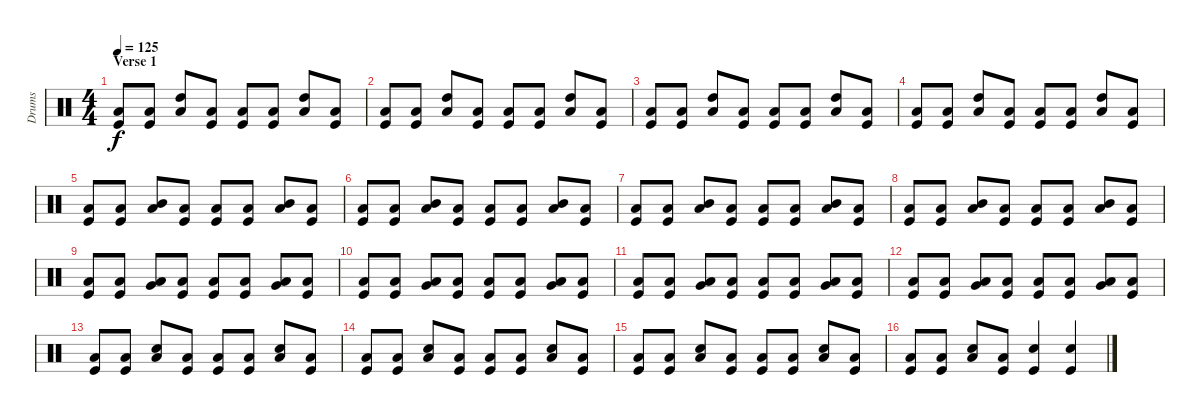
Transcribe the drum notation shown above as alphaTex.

\track ("Drums" "Drums") {instrument percussion}
\staff {score}
\articulation defaults
\ts (4 4)
\section ("" "Verse 1")
\tempo 125
\clef neutral
\ks c
("Low Floor Tom (hit)" "Kick (hit)").8{dy f} ("Low Floor Tom (hit)" "Kick (hit)").8 ("Low Floor Tom (hit)" "High Tom (hit)").8 ("Low Floor Tom (hit)" "Kick (hit)").8 ("Low Floor Tom (hit)" "Kick (hit)").8 ("Low Floor Tom (hit)" "Kick (hit)").8 ("Low Floor Tom (hit)" "High Tom (hit)").8 ("Low Floor Tom (hit)" "Kick (hit)").8 |
("Low Floor Tom (hit)" "Kick (hit)").8 ("Low Floor Tom (hit)" "Kick (hit)").8 ("Low Floor Tom (hit)" "High Tom (hit)").8 ("Low Floor Tom (hit)" "Kick (hit)").8 ("Low Floor Tom (hit)" "Kick (hit)").8 ("Low Floor Tom (hit)" "Kick (hit)").8 ("Low Floor Tom (hit)" "High Tom (hit)").8 ("Low Floor Tom (hit)" "Kick (hit)").8 |
("Low Floor Tom (hit)" "Kick (hit)").8 ("Low Floor Tom (hit)" "Kick (hit)").8 ("Low Floor Tom (hit)" "High Tom (hit)").8 ("Low Floor Tom (hit)" "Kick (hit)").8 ("Low Floor Tom (hit)" "Kick (hit)").8 ("Low Floor Tom (hit)" "Kick (hit)").8 ("Low Floor Tom (hit)" "High Tom (hit)").8 ("Low Floor Tom (hit)" "Kick (hit)").8 |
("Low Floor Tom (hit)" "Kick (hit)").8 ("Low Floor Tom (hit)" "Kick (hit)").8 ("Low Floor Tom (hit)" "High Tom (hit)").8 ("Low Floor Tom (hit)" "Kick (hit)").8 ("Low Floor Tom (hit)" "Kick (hit)").8 ("Low Floor Tom (hit)" "Kick (hit)").8 ("Low Floor Tom (hit)" "High Tom (hit)").8 ("Low Floor Tom (hit)" "Kick (hit)").8 |
("Low Floor Tom (hit)" "Kick (hit)").8 ("Low Floor Tom (hit)" "Kick (hit)").8 ("Low Floor Tom (hit)" "Mid Tom (hit)").8 ("Low Floor Tom (hit)" "Kick (hit)").8 ("Low Floor Tom (hit)" "Kick (hit)").8 ("Low Floor Tom (hit)" "Kick (hit)").8 ("Low Floor Tom (hit)" "Mid Tom (hit)").8 ("Low Floor Tom (hit)" "Kick (hit)").8 |
("Low Floor Tom (hit)" "Kick (hit)").8 ("Low Floor Tom (hit)" "Kick (hit)").8 ("Low Floor Tom (hit)" "Mid Tom (hit)").8 ("Low Floor Tom (hit)" "Kick (hit)").8 ("Low Floor Tom (hit)" "Kick (hit)").8 ("Low Floor Tom (hit)" "Kick (hit)").8 ("Low Floor Tom (hit)" "Mid Tom (hit)").8 ("Low Floor Tom (hit)" "Kick (hit)").8 |
("Low Floor Tom (hit)" "Kick (hit)").8 ("Low Floor Tom (hit)" "Kick (hit)").8 ("Low Floor Tom (hit)" "Mid Tom (hit)").8 ("Low Floor Tom (hit)" "Kick (hit)").8 ("Low Floor Tom (hit)" "Kick (hit)").8 ("Low Floor Tom (hit)" "Kick (hit)").8 ("Low Floor Tom (hit)" "Mid Tom (hit)").8 ("Low Floor Tom (hit)" "Kick (hit)").8 |
("Low Floor Tom (hit)" "Kick (hit)").8 ("Low Floor Tom (hit)" "Kick (hit)").8 ("Low Floor Tom (hit)" "Mid Tom (hit)").8 ("Low Floor Tom (hit)" "Kick (hit)").8 ("Low Floor Tom (hit)" "Kick (hit)").8 ("Low Floor Tom (hit)" "Kick (hit)").8 ("Low Floor Tom (hit)" "Mid Tom (hit)").8 ("Low Floor Tom (hit)" "Kick (hit)").8 |
("Low Floor Tom (hit)" "Kick (hit)").8 ("Low Floor Tom (hit)" "Kick (hit)").8 ("Low Floor Tom (hit)" "Very Low Tom (hit)").8 ("Low Floor Tom (hit)" "Kick (hit)").8 ("Low Floor Tom (hit)" "Kick (hit)").8 ("Low Floor Tom (hit)" "Kick (hit)").8 ("Low Floor Tom (hit)" "Very Low Tom (hit)").8 ("Low Floor Tom (hit)" "Kick (hit)").8 |
("Low Floor Tom (hit)" "Kick (hit)").8 ("Low Floor Tom (hit)" "Kick (hit)").8 ("Low Floor Tom (hit)" "Very Low Tom (hit)").8 ("Low Floor Tom (hit)" "Kick (hit)").8 ("Low Floor Tom (hit)" "Kick (hit)").8 ("Low Floor Tom (hit)" "Kick (hit)").8 ("Low Floor Tom (hit)" "Very Low Tom (hit)").8 ("Low Floor Tom (hit)" "Kick (hit)").8 |
("Low Floor Tom (hit)" "Kick (hit)").8 ("Low Floor Tom (hit)" "Kick (hit)").8 ("Low Floor Tom (hit)" "Very Low Tom (hit)").8 ("Low Floor Tom (hit)" "Kick (hit)").8 ("Low Floor Tom (hit)" "Kick (hit)").8 ("Low Floor Tom (hit)" "Kick (hit)").8 ("Low Floor Tom (hit)" "Very Low Tom (hit)").8 ("Low Floor Tom (hit)" "Kick (hit)").8 |
("Low Floor Tom (hit)" "Kick (hit)").8 ("Low Floor Tom (hit)" "Kick (hit)").8 ("Low Floor Tom (hit)" "Very Low Tom (hit)").8 ("Low Floor Tom (hit)" "Kick (hit)").8 ("Low Floor Tom (hit)" "Kick (hit)").8 ("Low Floor Tom (hit)" "Kick (hit)").8 ("Low Floor Tom (hit)" "Very Low Tom (hit)").8 ("Low Floor Tom (hit)" "Kick (hit)").8 |
("Low Floor Tom (hit)" "Kick (hit)").8 ("Low Floor Tom (hit)" "Kick (hit)").8 ("Low Floor Tom (hit)" "Electric Snare (hit)").8 ("Low Floor Tom (hit)" "Kick (hit)").8 ("Low Floor Tom (hit)" "Kick (hit)").8 ("Low Floor Tom (hit)" "Kick (hit)").8 ("Low Floor Tom (hit)" "Electric Snare (hit)").8 ("Low Floor Tom (hit)" "Kick (hit)").8 |
("Low Floor Tom (hit)" "Kick (hit)").8 ("Low Floor Tom (hit)" "Kick (hit)").8 ("Low Floor Tom (hit)" "Electric Snare (hit)").8 ("Low Floor Tom (hit)" "Kick (hit)").8 ("Low Floor Tom (hit)" "Kick (hit)").8 ("Low Floor Tom (hit)" "Kick (hit)").8 ("Low Floor Tom (hit)" "Electric Snare (hit)").8 ("Low Floor Tom (hit)" "Kick (hit)").8 |
("Low Floor Tom (hit)" "Kick (hit)").8 ("Low Floor Tom (hit)" "Kick (hit)").8 ("Low Floor Tom (hit)" "Electric Snare (hit)").8 ("Low Floor Tom (hit)" "Kick (hit)").8 ("Low Floor Tom (hit)" "Kick (hit)").8 ("Low Floor Tom (hit)" "Kick (hit)").8 ("Low Floor Tom (hit)" "Electric Snare (hit)").8 ("Low Floor Tom (hit)" "Kick (hit)").8 |
("Low Floor Tom (hit)" "Kick (hit)").8 ("Low Floor Tom (hit)" "Kick (hit)").8 ("Low Floor Tom (hit)" "Electric Snare (hit)").8 ("Low Floor Tom (hit)" "Kick (hit)").8 ("Electric Snare (hit)" "Kick (hit)").4 ("Electric Snare (hit)" "Kick (hit)").4
